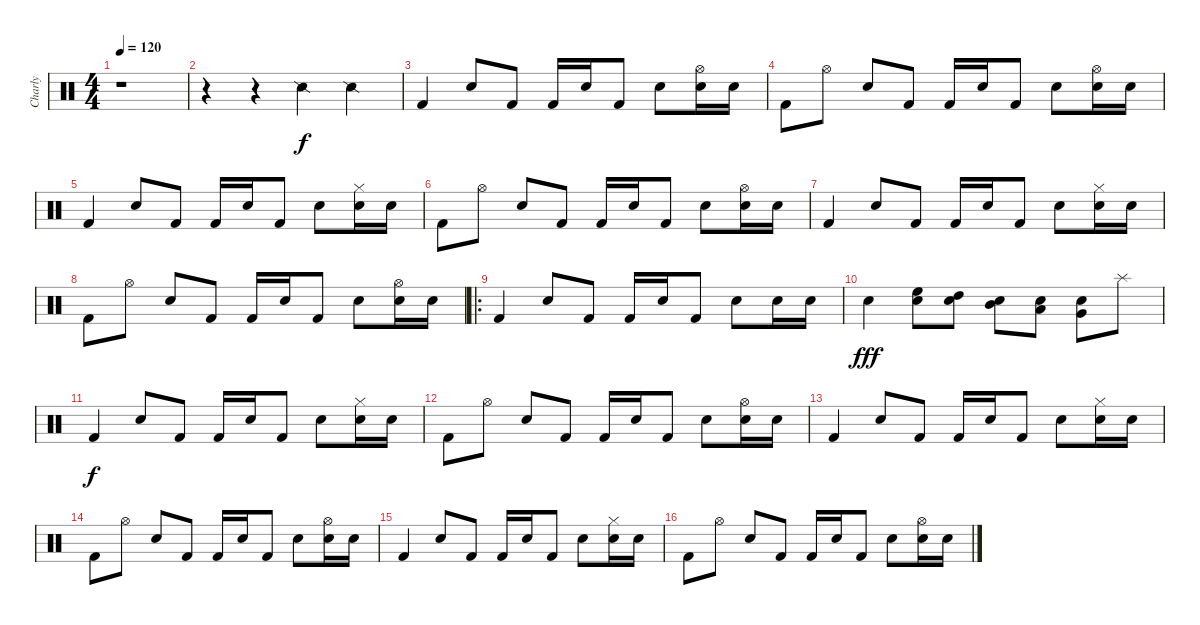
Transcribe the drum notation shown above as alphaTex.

\track ("Charly" "Charly") {instrument percussion}
\staff {score}
\articulation defaults
\ts (4 4)
\tempo 120
\clef neutral
\ks c
r.1{dy f} |
r.4 r.4 "Snare (side stick) 2".4 "Snare (side stick) 2".4 |
"Kick (hit) 2".4 "Snare (hit) 2".8 "Kick (hit) 2".8 "Kick (hit) 2".16 "Snare (hit) 2".16 "Kick (hit) 2".8 "Snare (hit) 2".8 ("Hi-Hat (open)" "Snare (hit) 2").16 "Snare (hit) 2".16 |
"Kick (hit) 2".8 "Hi-Hat (open)".8 "Snare (hit) 2".8 "Kick (hit) 2".8 "Kick (hit) 2".16 "Snare (hit) 2".16 "Kick (hit) 2".8 "Snare (hit) 2".8 ("Hi-Hat (open)" "Snare (hit) 2").16 "Snare (hit) 2".16 |
"Kick (hit) 2".4 "Snare (hit) 2".8 "Kick (hit) 2".8 "Kick (hit) 2".16 "Snare (hit) 2".16 "Kick (hit) 2".8 "Snare (hit) 2".8 ("Hi-Hat (closed)" "Snare (hit) 2").16 "Snare (hit) 2".16 |
"Kick (hit) 2".8 "Hi-Hat (open)".8 "Snare (hit) 2".8 "Kick (hit) 2".8 "Kick (hit) 2".16 "Snare (hit) 2".16 "Kick (hit) 2".8 "Snare (hit) 2".8 ("Hi-Hat (open)" "Snare (hit) 2").16 "Snare (hit) 2".16 |
"Kick (hit) 2".4 "Snare (hit) 2".8 "Kick (hit) 2".8 "Kick (hit) 2".16 "Snare (hit) 2".16 "Kick (hit) 2".8 "Snare (hit) 2".8 ("Hi-Hat (closed)" "Snare (hit) 2").16 "Snare (hit) 2".16 |
"Kick (hit) 2".8 "Hi-Hat (open)".8 "Snare (hit) 2".8 "Kick (hit) 2".8 "Kick (hit) 2".16 "Snare (hit) 2".16 "Kick (hit) 2".8 "Snare (hit) 2".8 ("Hi-Hat (open)" "Snare (hit) 2").16 "Snare (hit) 2".16 |
\ro "Kick (hit) 2".4 "Snare (hit) 2".8 "Kick (hit) 2".8 "Kick (hit) 2".16 "Snare (hit) 2".16 "Kick (hit) 2".8 "Snare (hit) 2".8 "Snare (hit) 2".16 "Snare (hit) 2".16
|
"Snare (hit) 2".4{dy fff} ("High Floor Tom (hit)" "Snare (hit) 2").8 ("High Tom (hit)" "Snare (hit) 2").8 ("Mid Tom (hit)" "Snare (hit) 2").8 ("Low Tom (hit)" "Snare (hit) 2").8 ("Very Low Tom (hit)" "Snare (hit) 2").8 "Splash (hit)".8 |
"Kick (hit) 2".4{dy f} "Snare (hit) 2".8 "Kick (hit) 2".8 "Kick (hit) 2".16 "Snare (hit) 2".16 "Kick (hit) 2".8 "Snare (hit) 2".8 ("Hi-Hat (closed)" "Snare (hit) 2").16 "Snare (hit) 2".16 |
"Kick (hit) 2".8 "Hi-Hat (open)".8 "Snare (hit) 2".8 "Kick (hit) 2".8 "Kick (hit) 2".16 "Snare (hit) 2".16 "Kick (hit) 2".8 "Snare (hit) 2".8 ("Hi-Hat (open)" "Snare (hit) 2").16 "Snare (hit) 2".16 |
"Kick (hit) 2".4 "Snare (hit) 2".8 "Kick (hit) 2".8 "Kick (hit) 2".16 "Snare (hit) 2".16 "Kick (hit) 2".8 "Snare (hit) 2".8 ("Hi-Hat (closed)" "Snare (hit) 2").16 "Snare (hit) 2".16 |
"Kick (hit) 2".8 "Hi-Hat (open)".8 "Snare (hit) 2".8 "Kick (hit) 2".8 "Kick (hit) 2".16 "Snare (hit) 2".16 "Kick (hit) 2".8 "Snare (hit) 2".8 ("Hi-Hat (open)" "Snare (hit) 2").16 "Snare (hit) 2".16 |
"Kick (hit) 2".4 "Snare (hit) 2".8 "Kick (hit) 2".8 "Kick (hit) 2".16 "Snare (hit) 2".16 "Kick (hit) 2".8 "Snare (hit) 2".8 ("Hi-Hat (closed)" "Snare (hit) 2").16 "Snare (hit) 2".16 |
"Kick (hit) 2".8 "Hi-Hat (open)".8 "Snare (hit) 2".8 "Kick (hit) 2".8 "Kick (hit) 2".16 "Snare (hit) 2".16 "Kick (hit) 2".8 "Snare (hit) 2".8 ("Hi-Hat (open)" "Snare (hit) 2").16 "Snare (hit) 2".16
